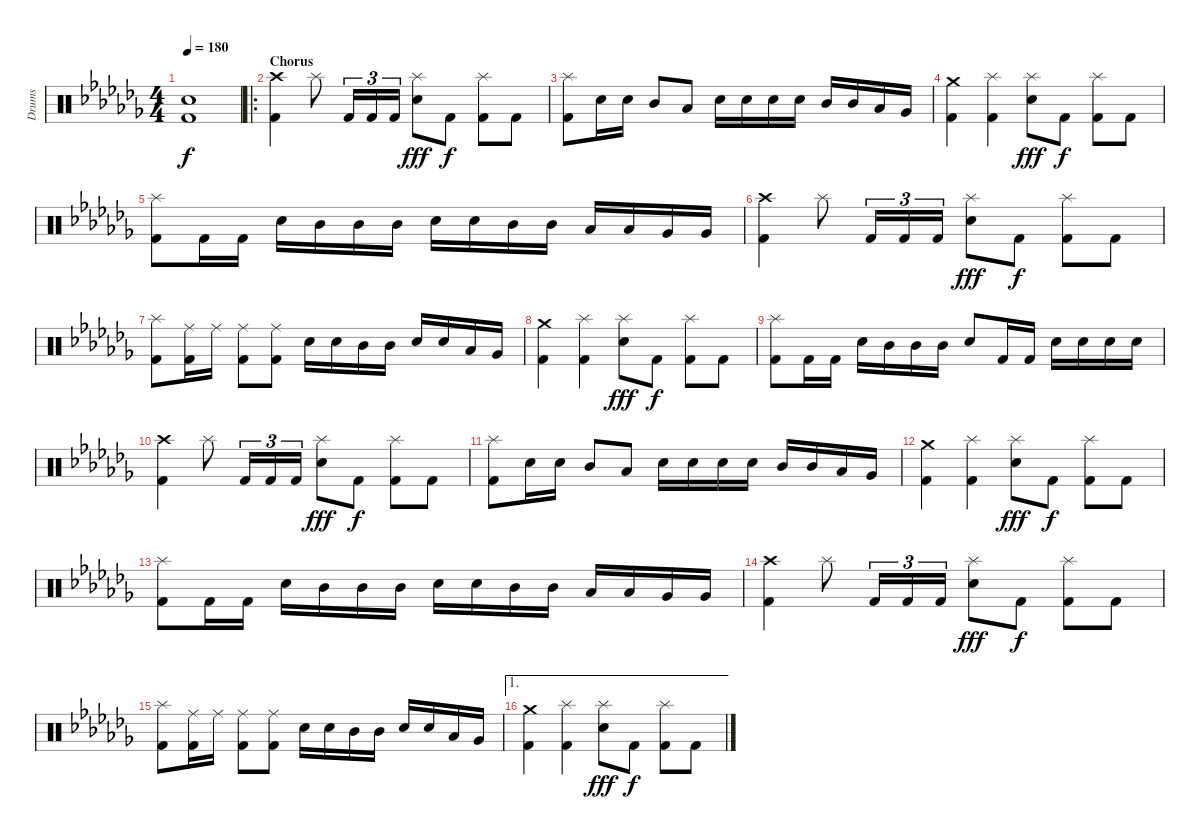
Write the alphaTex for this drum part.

\track ("Drums" "Drums") {instrument percussion}
\staff {score}
\articulation defaults
\ts (4 4)
\tempo 180
\clef neutral
\ks abminor
("Snare (hit) 2" "Kick (hit) 2").1{dy f} |
\ro
\section ("" "Chorus")
("Crash high (hit)" "Kick (hit) 2").4 "Splash (hit)".8 "Kick (hit) 2".16{tu (3 2)} "Kick (hit) 2".16{tu (3 2)} "Kick (hit) 2".16{tu (3 2)} ("Splash (hit)" "Snare (hit) 2").8{dy fff} "Kick (hit) 2".8{dy f} ("Splash (hit)" "Kick (hit) 2").8 "Kick (hit) 2".8 |
("Splash (hit)" "Kick (hit) 2").8 "Snare (hit) 2".16 "Snare (hit) 2".16 "Mid Tom (hit)".8 "Low Tom (hit)".8 "Snare (hit) 2".16 "Snare (hit) 2".16 "Snare (hit) 2".16 "Snare (hit) 2".16 "Mid Tom (hit)".16 "Mid Tom (hit)".16 "Low Tom (hit)".16 "Very Low Tom (hit)".16 |
("Crash medium (hit)" "Kick (hit) 2").4 ("Splash (hit)" "Kick (hit) 2").4 ("Splash (hit)" "Snare (hit) 2").8{dy fff} "Kick (hit) 2".8{dy f} ("Splash (hit)" "Kick (hit) 2").8 "Kick (hit) 2".8 |
("Splash (hit)" "Kick (hit) 2").8 "Kick (hit) 2".16 "Kick (hit) 2".16 "Snare (hit) 2".16 "Mid Tom (hit)".16 "Mid Tom (hit)".16 "Mid Tom (hit)".16 "Snare (hit) 2".16 "Snare (hit) 2".16 "Mid Tom (hit)".16 "Mid Tom (hit)".16 "Low Tom (hit)".16 "Low Tom (hit)".16 "Very Low Tom (hit)".16 "Very Low Tom (hit)".16 |
("Crash high (hit)" "Kick (hit) 2").4 "Splash (hit)".8 "Kick (hit) 2".16{tu (3 2)} "Kick (hit) 2".16{tu (3 2)} "Kick (hit) 2".16{tu (3 2)} ("Splash (hit)" "Snare (hit) 2").8{dy fff} "Kick (hit) 2".8{dy f} ("Splash (hit)" "Kick (hit) 2").8 "Kick (hit) 2".8 |
("Splash (hit)" "Kick (hit) 2").8 ("Ride (middle)" "Kick (hit) 2").16 "Ride (middle)".16 ("Ride (middle)" "Kick (hit) 2").8 ("Ride (middle)" "Kick (hit) 2").8 "Snare (hit) 2".16 "Snare (hit) 2".16 "Mid Tom (hit)".16 "Mid Tom (hit)".16 "Snare (hit) 2".16 "Snare (hit) 2".16 "Low Tom (hit)".16 "Very Low Tom (hit)".16 |
("Crash medium (hit)" "Kick (hit) 2").4 ("Splash (hit)" "Kick (hit) 2").4 ("Splash (hit)" "Snare (hit) 2").8{dy fff} "Kick (hit) 2".8{dy f} ("Splash (hit)" "Kick (hit) 2").8 "Kick (hit) 2".8 |
("Splash (hit)" "Kick (hit) 2").8 "Kick (hit) 2".16 "Kick (hit) 2".16 "Snare (hit) 2".16 "Mid Tom (hit)".16 "Mid Tom (hit)".16 "Mid Tom (hit)".16 "Snare (hit) 2".8 "Kick (hit) 2".16 "Kick (hit) 2".16 "Snare (hit) 2".16 "Snare (hit) 2".16 "Snare (hit) 2".16 "Snare (hit) 2".16 |
("Crash high (hit)" "Kick (hit) 2").4 "Splash (hit)".8 "Kick (hit) 2".16{tu (3 2)} "Kick (hit) 2".16{tu (3 2)} "Kick (hit) 2".16{tu (3 2)} ("Splash (hit)" "Snare (hit) 2").8{dy fff} "Kick (hit) 2".8{dy f} ("Splash (hit)" "Kick (hit) 2").8 "Kick (hit) 2".8 |
("Splash (hit)" "Kick (hit) 2").8 "Snare (hit) 2".16 "Snare (hit) 2".16 "Mid Tom (hit)".8 "Low Tom (hit)".8 "Snare (hit) 2".16 "Snare (hit) 2".16 "Snare (hit) 2".16 "Snare (hit) 2".16 "Mid Tom (hit)".16 "Mid Tom (hit)".16 "Low Tom (hit)".16 "Very Low Tom (hit)".16 |
("Crash medium (hit)" "Kick (hit) 2").4 ("Splash (hit)" "Kick (hit) 2").4 ("Splash (hit)" "Snare (hit) 2").8{dy fff} "Kick (hit) 2".8{dy f} ("Splash (hit)" "Kick (hit) 2").8 "Kick (hit) 2".8 |
("Splash (hit)" "Kick (hit) 2").8 "Kick (hit) 2".16 "Kick (hit) 2".16 "Snare (hit) 2".16 "Mid Tom (hit)".16 "Mid Tom (hit)".16 "Mid Tom (hit)".16 "Snare (hit) 2".16 "Snare (hit) 2".16 "Mid Tom (hit)".16 "Mid Tom (hit)".16 "Low Tom (hit)".16 "Low Tom (hit)".16 "Very Low Tom (hit)".16 "Very Low Tom (hit)".16 |
("Crash high (hit)" "Kick (hit) 2").4 "Splash (hit)".8 "Kick (hit) 2".16{tu (3 2)} "Kick (hit) 2".16{tu (3 2)} "Kick (hit) 2".16{tu (3 2)} ("Splash (hit)" "Snare (hit) 2").8{dy fff} "Kick (hit) 2".8{dy f} ("Splash (hit)" "Kick (hit) 2").8 "Kick (hit) 2".8 |
("Splash (hit)" "Kick (hit) 2").8 ("Ride (middle)" "Kick (hit) 2").16 "Ride (middle)".16 ("Ride (middle)" "Kick (hit) 2").8 ("Ride (middle)" "Kick (hit) 2").8 "Snare (hit) 2".16 "Snare (hit) 2".16 "Mid Tom (hit)".16 "Mid Tom (hit)".16 "Snare (hit) 2".16 "Snare (hit) 2".16 "Low Tom (hit)".16 "Very Low Tom (hit)".16 |
\ae 1
("Crash medium (hit)" "Kick (hit) 2").4 ("Splash (hit)" "Kick (hit) 2").4 ("Splash (hit)" "Snare (hit) 2").8{dy fff} "Kick (hit) 2".8{dy f} ("Splash (hit)" "Kick (hit) 2").8 "Kick (hit) 2".8
